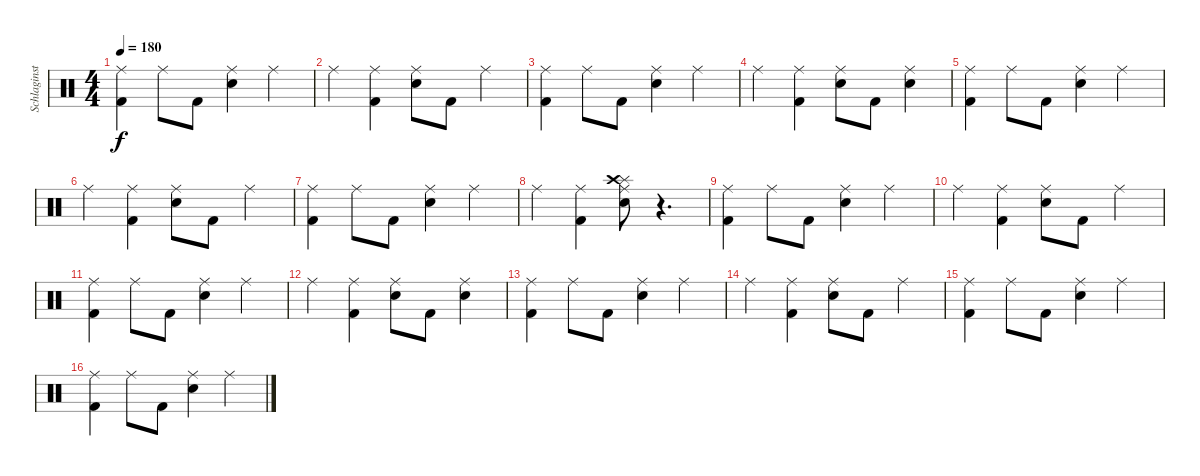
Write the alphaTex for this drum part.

\track ("Schlaginstrumente - Auswahl" "Schlaginst") {instrument percussion}
\staff {score}
\articulation defaults
\ts (4 4)
\tempo 180
\clef neutral
\ks c
("Ride (middle)" "Kick (hit) 2").4{dy f} "Ride (middle)".8 "Kick (hit) 2".8 ("Ride (middle)" "Snare (hit) 2").4 "Ride (middle)".4 |
"Ride (middle)".4 ("Ride (middle)" "Kick (hit) 2").4 ("Ride (middle)" "Snare (hit) 2").8 "Kick (hit) 2".8 "Ride (middle)".4 |
("Ride (middle)" "Kick (hit) 2").4 "Ride (middle)".8 "Kick (hit) 2".8 ("Ride (middle)" "Snare (hit) 2").4 "Ride (middle)".4 |
"Ride (middle)".4 ("Ride (middle)" "Kick (hit) 2").4 ("Ride (middle)" "Snare (hit) 2").8 "Kick (hit) 2".8 ("Ride (middle)" "Snare (hit) 2").4 |
("Ride (middle)" "Kick (hit) 2").4 "Ride (middle)".8 "Kick (hit) 2".8 ("Ride (middle)" "Snare (hit) 2").4 "Ride (middle)".4 |
"Ride (middle)".4 ("Ride (middle)" "Kick (hit) 2").4 ("Ride (middle)" "Snare (hit) 2").8 "Kick (hit) 2".8 "Ride (middle)".4 |
("Ride (middle)" "Kick (hit) 2").4 "Ride (middle)".8 "Kick (hit) 2".8 ("Ride (middle)" "Snare (hit) 2").4 "Ride (middle)".4 |
"Ride (middle)".4 ("Ride (middle)" "Kick (hit) 2").4 ("Ride (middle)" "Splash (hit)" "Snare (hit) 2" "Crash high (hit)").8 r.4{d} |
("Ride (middle)" "Kick (hit) 2").4 "Ride (middle)".8 "Kick (hit) 2".8 ("Ride (middle)" "Snare (hit) 2").4 "Ride (middle)".4 |
"Ride (middle)".4 ("Ride (middle)" "Kick (hit) 2").4 ("Ride (middle)" "Snare (hit) 2").8 "Kick (hit) 2".8 "Ride (middle)".4 |
("Ride (middle)" "Kick (hit) 2").4 "Ride (middle)".8 "Kick (hit) 2".8 ("Ride (middle)" "Snare (hit) 2").4 "Ride (middle)".4 |
"Ride (middle)".4 ("Ride (middle)" "Kick (hit) 2").4 ("Ride (middle)" "Snare (hit) 2").8 "Kick (hit) 2".8 ("Ride (middle)" "Snare (hit) 2").4 |
("Ride (middle)" "Kick (hit) 2").4 "Ride (middle)".8 "Kick (hit) 2".8 ("Ride (middle)" "Snare (hit) 2").4 "Ride (middle)".4 |
"Ride (middle)".4 ("Ride (middle)" "Kick (hit) 2").4 ("Ride (middle)" "Snare (hit) 2").8 "Kick (hit) 2".8 "Ride (middle)".4 |
("Ride (middle)" "Kick (hit) 2").4 "Ride (middle)".8 "Kick (hit) 2".8 ("Ride (middle)" "Snare (hit) 2").4 "Ride (middle)".4 |
("Ride (middle)" "Kick (hit) 2").4 "Ride (middle)".8 "Kick (hit) 2".8 ("Ride (middle)" "Snare (hit) 2").4 "Ride (middle)".4
